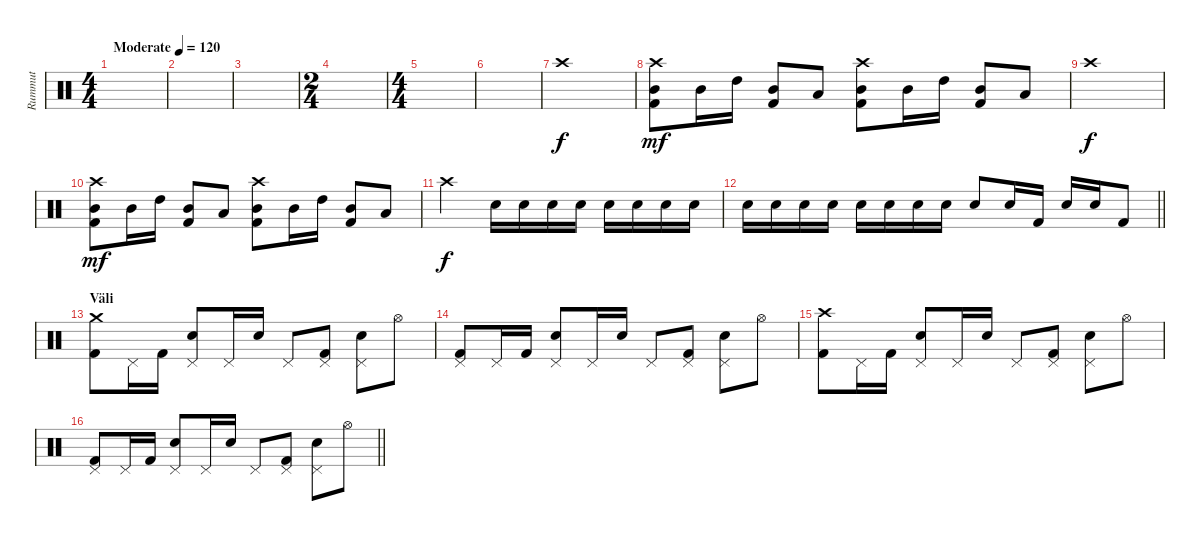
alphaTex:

\track ("Rummut" "Rummut") {instrument percussion}
\staff {score}
\articulation defaults
\ts (4 4)
\tempo (120 "Moderate")
\clef neutral
\ks c
|
|
|
\ts (2 4)
|
\ts (4 4)
|
|
"Crash high (hit)".1 |
("Crash high (hit)" "Mid Tom (hit)" "Kick (hit) 2").8{dy mf} "Mid Tom (hit)".16 "High Tom (hit)".16 ("Mid Tom (hit)" "Kick (hit) 2").8 "Low Tom (hit)".8 ("Crash high (hit)" "Mid Tom (hit)" "Kick (hit) 2").8 "Mid Tom (hit)".16 "High Tom (hit)".16 ("Mid Tom (hit)" "Kick (hit) 2").8 "Low Tom (hit)".8 |
"Crash high (hit)".1{dy f} |
("Crash high (hit)" "Mid Tom (hit)" "Kick (hit) 2").8{dy mf} "Mid Tom (hit)".16 "High Tom (hit)".16 ("Mid Tom (hit)" "Kick (hit) 2").8 "Low Tom (hit)".8 ("Crash high (hit)" "Mid Tom (hit)" "Kick (hit) 2").8 "Mid Tom (hit)".16 "High Tom (hit)".16 ("Mid Tom (hit)" "Kick (hit) 2").8 "Low Tom (hit)".8 |
"Crash high (hit)".2{dy f volume 2} "Snare (hit) 2".16{volume 12} "Snare (hit) 2".16 "Snare (hit) 2".16 "Snare (hit) 2".16 "Snare (hit) 2".16 "Snare (hit) 2".16 "Snare (hit) 2".16 "Snare (hit) 2".16 |
\barLineRight lightlight "Snare (hit) 2".16 "Snare (hit) 2".16 "Snare (hit) 2".16 "Snare (hit) 2".16 "Snare (hit) 2".16 "Snare (hit) 2".16 "Snare (hit) 2".16 "Snare (hit) 2".16 "Snare (hit) 2".8 "Snare (hit) 2".16 "Kick (hit) 2".16 "Snare (hit) 2".16 "Snare (hit) 2".16 "Kick (hit) 2".8
|
\section ("" "Väli")
("Crash medium (hit)" "Kick (hit) 2").8 "Pedal Hi-Hat (hit)".16 "Kick (hit) 2".16 ("Pedal Hi-Hat (hit)" "Electric Snare (hit)").8 "Pedal Hi-Hat (hit)".16 "Electric Snare (hit)".16 "Pedal Hi-Hat (hit)".8 ("Pedal Hi-Hat (hit)" "Kick (hit) 2").8 ("Pedal Hi-Hat (hit)" "Electric Snare (hit)").8 "Hi-Hat (open)".8 |
("Pedal Hi-Hat (hit)" "Kick (hit) 2").8 "Pedal Hi-Hat (hit)".16 "Kick (hit) 2".16 ("Pedal Hi-Hat (hit)" "Electric Snare (hit)").8 "Pedal Hi-Hat (hit)".16 "Electric Snare (hit)".16 "Pedal Hi-Hat (hit)".8 ("Pedal Hi-Hat (hit)" "Kick (hit) 2").8 ("Pedal Hi-Hat (hit)" "Electric Snare (hit)").8 "Hi-Hat (open)".8 |
("Crash high (hit)" "Kick (hit) 2").8 "Pedal Hi-Hat (hit)".16 "Kick (hit) 2".16 ("Pedal Hi-Hat (hit)" "Electric Snare (hit)").8 "Pedal Hi-Hat (hit)".16 "Electric Snare (hit)".16 "Pedal Hi-Hat (hit)".8 ("Pedal Hi-Hat (hit)" "Kick (hit) 2").8 ("Pedal Hi-Hat (hit)" "Electric Snare (hit)").8 "Hi-Hat (open)".8 |
\barLineRight lightlight
("Pedal Hi-Hat (hit)" "Kick (hit) 2").8 "Pedal Hi-Hat (hit)".16 "Kick (hit) 2".16 ("Pedal Hi-Hat (hit)" "Electric Snare (hit)").8 "Pedal Hi-Hat (hit)".16 "Electric Snare (hit)".16 "Pedal Hi-Hat (hit)".8 ("Pedal Hi-Hat (hit)" "Kick (hit) 2").8 ("Pedal Hi-Hat (hit)" "Electric Snare (hit)").8 "Hi-Hat (open)".8
